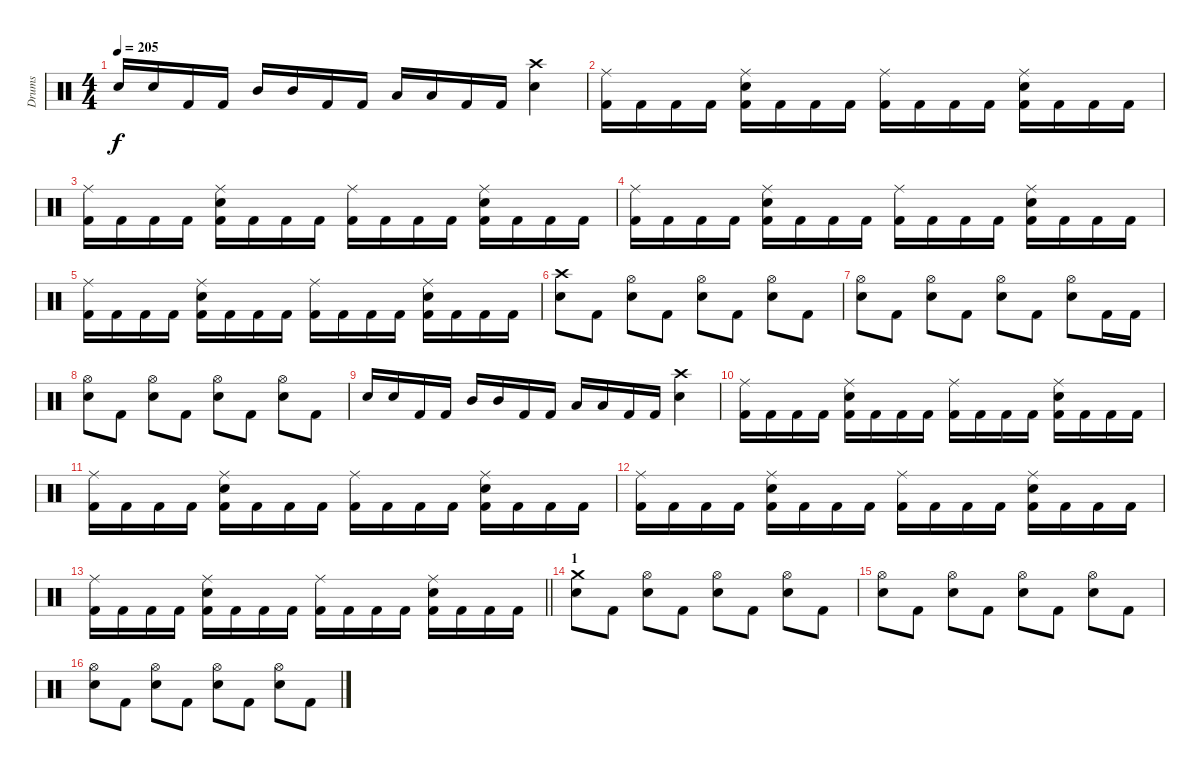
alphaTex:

\track ("Drums" "Drums") {instrument percussion}
\staff {score}
\articulation defaults
\ts (4 4)
\tempo 205
\clef neutral
\ks c "Electric Snare (hit)".16{dy f} "Electric Snare (hit)".16 "Kick (hit) 2".16 "Kick (hit) 2".16 "Mid Tom (hit)".16 "Mid Tom (hit)".16 "Kick (hit) 2".16 "Kick (hit) 2".16 "Low Tom (hit)".16 "Low Tom (hit)".16 "Kick (hit) 2".16 "Kick (hit) 2".16
("Crash high (hit)" "Electric Snare (hit)").4 |
("Ride (middle)" "Kick (hit) 2").16 "Kick (hit) 2".16 "Kick (hit) 2".16 "Kick (hit) 2".16 ("Ride (middle)" "Electric Snare (hit)" "Kick (hit) 2").16 "Kick (hit) 2".16 "Kick (hit) 2".16 "Kick (hit) 2".16 ("Ride (middle)" "Kick (hit) 2").16 "Kick (hit) 2".16 "Kick (hit) 2".16 "Kick (hit) 2".16 ("Ride (middle)" "Electric Snare (hit)" "Kick (hit) 2").16 "Kick (hit) 2".16 "Kick (hit) 2".16 "Kick (hit) 2".16 |
("Ride (middle)" "Kick (hit) 2").16 "Kick (hit) 2".16 "Kick (hit) 2".16 "Kick (hit) 2".16 ("Ride (middle)" "Electric Snare (hit)" "Kick (hit) 2").16 "Kick (hit) 2".16 "Kick (hit) 2".16 "Kick (hit) 2".16 ("Ride (middle)" "Kick (hit) 2").16 "Kick (hit) 2".16 "Kick (hit) 2".16 "Kick (hit) 2".16 ("Ride (middle)" "Electric Snare (hit)" "Kick (hit) 2").16 "Kick (hit) 2".16 "Kick (hit) 2".16 "Kick (hit) 2".16 |
("Ride (middle)" "Kick (hit) 2").16 "Kick (hit) 2".16 "Kick (hit) 2".16 "Kick (hit) 2".16 ("Ride (middle)" "Electric Snare (hit)" "Kick (hit) 2").16 "Kick (hit) 2".16 "Kick (hit) 2".16 "Kick (hit) 2".16 ("Ride (middle)" "Kick (hit) 2").16 "Kick (hit) 2".16 "Kick (hit) 2".16 "Kick (hit) 2".16 ("Ride (middle)" "Electric Snare (hit)" "Kick (hit) 2").16 "Kick (hit) 2".16 "Kick (hit) 2".16 "Kick (hit) 2".16 |
("Ride (middle)" "Kick (hit) 2").16 "Kick (hit) 2".16 "Kick (hit) 2".16 "Kick (hit) 2".16 ("Ride (middle)" "Electric Snare (hit)" "Kick (hit) 2").16 "Kick (hit) 2".16 "Kick (hit) 2".16 "Kick (hit) 2".16 ("Ride (middle)" "Kick (hit) 2").16 "Kick (hit) 2".16 "Kick (hit) 2".16 "Kick (hit) 2".16 ("Ride (middle)" "Electric Snare (hit)" "Kick (hit) 2").16 "Kick (hit) 2".16 "Kick (hit) 2".16 "Kick (hit) 2".16 |
("Crash high (hit)" "Electric Snare (hit)").8 "Kick (hit) 2".8 ("Hi-Hat (open)" "Electric Snare (hit)").8 "Kick (hit) 2".8 ("Hi-Hat (open)" "Electric Snare (hit)").8 "Kick (hit) 2".8 ("Hi-Hat (open)" "Electric Snare (hit)").8 "Kick (hit) 2".8 |
("Hi-Hat (open)" "Electric Snare (hit)").8 "Kick (hit) 2".8 ("Hi-Hat (open)" "Electric Snare (hit)").8 "Kick (hit) 2".8 ("Hi-Hat (open)" "Electric Snare (hit)").8 "Kick (hit) 2".8 ("Hi-Hat (open)" "Electric Snare (hit)").8 "Kick (hit) 2".16 "Kick (hit) 2".16 |
("Hi-Hat (open)" "Electric Snare (hit)").8 "Kick (hit) 2".8 ("Hi-Hat (open)" "Electric Snare (hit)").8 "Kick (hit) 2".8 ("Hi-Hat (open)" "Electric Snare (hit)").8 "Kick (hit) 2".8 ("Hi-Hat (open)" "Electric Snare (hit)").8 "Kick (hit) 2".8 |
"Electric Snare (hit)".16 "Electric Snare (hit)".16 "Kick (hit) 2".16 "Kick (hit) 2".16 "Mid Tom (hit)".16 "Mid Tom (hit)".16 "Kick (hit) 2".16 "Kick (hit) 2".16 "Low Tom (hit)".16 "Low Tom (hit)".16 "Kick (hit) 2".16 "Kick (hit) 2".16 ("Crash high (hit)" "Electric Snare (hit)").4 |
("Ride (middle)" "Kick (hit) 2").16 "Kick (hit) 2".16 "Kick (hit) 2".16 "Kick (hit) 2".16 ("Ride (middle)" "Electric Snare (hit)" "Kick (hit) 2").16 "Kick (hit) 2".16 "Kick (hit) 2".16 "Kick (hit) 2".16 ("Ride (middle)" "Kick (hit) 2").16 "Kick (hit) 2".16 "Kick (hit) 2".16 "Kick (hit) 2".16 ("Ride (middle)" "Electric Snare (hit)" "Kick (hit) 2").16 "Kick (hit) 2".16 "Kick (hit) 2".16 "Kick (hit) 2".16 |
("Ride (middle)" "Kick (hit) 2").16 "Kick (hit) 2".16 "Kick (hit) 2".16 "Kick (hit) 2".16 ("Ride (middle)" "Electric Snare (hit)" "Kick (hit) 2").16 "Kick (hit) 2".16 "Kick (hit) 2".16 "Kick (hit) 2".16 ("Ride (middle)" "Kick (hit) 2").16 "Kick (hit) 2".16 "Kick (hit) 2".16 "Kick (hit) 2".16 ("Ride (middle)" "Electric Snare (hit)" "Kick (hit) 2").16 "Kick (hit) 2".16 "Kick (hit) 2".16 "Kick (hit) 2".16 |
("Ride (middle)" "Kick (hit) 2").16 "Kick (hit) 2".16 "Kick (hit) 2".16 "Kick (hit) 2".16 ("Ride (middle)" "Electric Snare (hit)" "Kick (hit) 2").16 "Kick (hit) 2".16 "Kick (hit) 2".16 "Kick (hit) 2".16 ("Ride (middle)" "Kick (hit) 2").16 "Kick (hit) 2".16 "Kick (hit) 2".16 "Kick (hit) 2".16 ("Ride (middle)" "Electric Snare (hit)" "Kick (hit) 2").16 "Kick (hit) 2".16 "Kick (hit) 2".16 "Kick (hit) 2".16 |
\barLineRight lightlight
("Ride (middle)" "Kick (hit) 2").16 "Kick (hit) 2".16 "Kick (hit) 2".16 "Kick (hit) 2".16 ("Ride (middle)" "Electric Snare (hit)" "Kick (hit) 2").16 "Kick (hit) 2".16 "Kick (hit) 2".16 "Kick (hit) 2".16 ("Ride (middle)" "Kick (hit) 2").16 "Kick (hit) 2".16 "Kick (hit) 2".16 "Kick (hit) 2".16 ("Ride (middle)" "Electric Snare (hit)" "Kick (hit) 2").16 "Kick (hit) 2".16 "Kick (hit) 2".16 "Kick (hit) 2".16 |
\section ("" "1")
("Crash medium (hit)" "Electric Snare (hit)").8 "Kick (hit) 2".8 ("Hi-Hat (open)" "Electric Snare (hit)").8 "Kick (hit) 2".8 ("Hi-Hat (open)" "Electric Snare (hit)").8 "Kick (hit) 2".8 ("Hi-Hat (open)" "Electric Snare (hit)").8 "Kick (hit) 2".8 |
("Hi-Hat (open)" "Electric Snare (hit)").8 "Kick (hit) 2".8 ("Hi-Hat (open)" "Electric Snare (hit)").8 "Kick (hit) 2".8 ("Hi-Hat (open)" "Electric Snare (hit)").8 "Kick (hit) 2".8 ("Hi-Hat (open)" "Electric Snare (hit)").8 "Kick (hit) 2".8 |
("Hi-Hat (open)" "Electric Snare (hit)").8 "Kick (hit) 2".8 ("Hi-Hat (open)" "Electric Snare (hit)").8 "Kick (hit) 2".8 ("Hi-Hat (open)" "Electric Snare (hit)").8 "Kick (hit) 2".8 ("Hi-Hat (open)" "Electric Snare (hit)").8 "Kick (hit) 2".8
